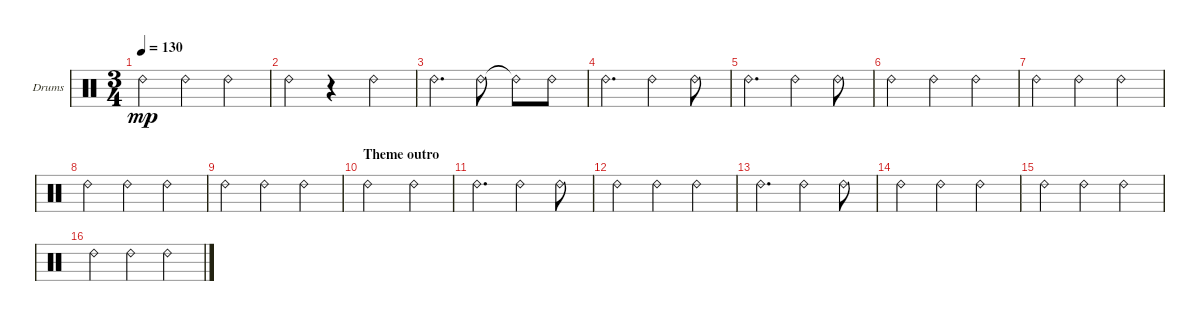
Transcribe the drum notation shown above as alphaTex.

\bracketExtendMode groupsimilarinstruments
\firstSystemTrackNameOrientation horizontal
\otherSystemsTrackNameOrientation horizontal
\track ("OH" "Drums") {instrument percussion}
\staff {score}
\articulation defaults
\ts (3 4)
\tempo 130
\clef neutral
\ks c "Ride (bell) 2".4{dy mp} "Ride (bell) 2".4 "Ride (bell) 2".4
|
"Ride (bell) 2".4 r.4 "Ride (bell) 2".4 |
"Ride (bell) 2".4{d} "Ride (bell) 2".8 "Ride (bell) 2"{t}.8 "Ride (bell) 2".8 |
"Ride (bell) 2".4{d} "Ride (bell) 2".4 "Ride (bell) 2".8 |
"Ride (bell) 2".4{d} "Ride (bell) 2".4 "Ride (bell) 2".8 |
"Ride (bell) 2".4 "Ride (bell) 2".4 "Ride (bell) 2".4 |
"Ride (bell) 2".4 "Ride (bell) 2".4 "Ride (bell) 2".4 |
"Ride (bell) 2".4 "Ride (bell) 2".4 "Ride (bell) 2".4 |
"Ride (bell) 2".4 "Ride (bell) 2".4 "Ride (bell) 2".4 |
\section ("" "Theme outro")
"Ride (bell) 2".2 "Ride (bell) 2".4 |
"Ride (bell) 2".4{d} "Ride (bell) 2".4 "Ride (bell) 2".8 |
"Ride (bell) 2".4 "Ride (bell) 2".4 "Ride (bell) 2".4 |
"Ride (bell) 2".4{d} "Ride (bell) 2".4 "Ride (bell) 2".8 |
"Ride (bell) 2".4 "Ride (bell) 2".4 "Ride (bell) 2".4 |
"Ride (bell) 2".4 "Ride (bell) 2".4 "Ride (bell) 2".4 |
"Ride (bell) 2".4 "Ride (bell) 2".4 "Ride (bell) 2".4
